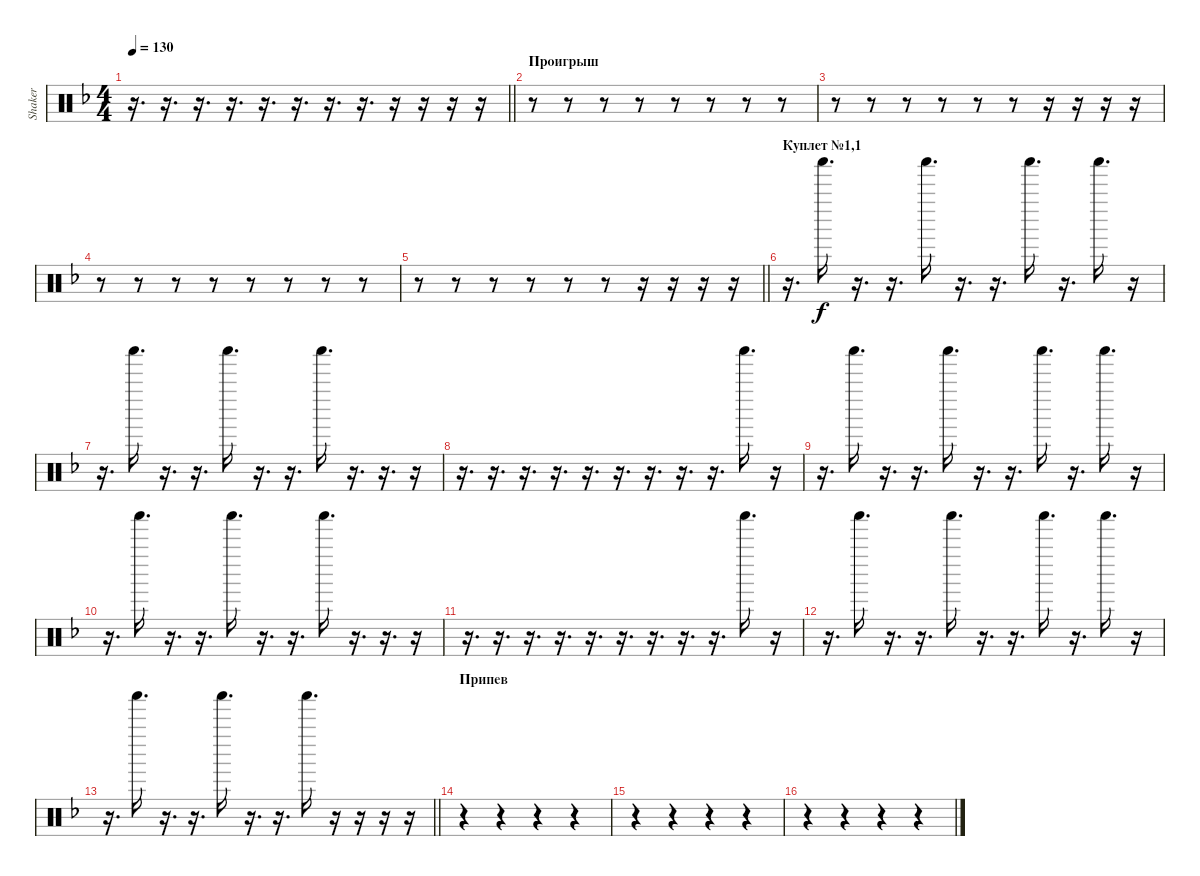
\track ("Shaker" "Shaker") {instrument percussion}
\staff {score}
\articulation defaults
\ts (4 4)
\tempo 130
\clef neutral
\barLineRight lightlight
\ks f
r.16{d dy f} r.16{d} r.16{d} r.16{d} r.16{d} r.16{d} r.16{d} r.16{d} r.16 r.16 r.16 r.16 |
\section ("" "Проигрыш")
r.8 r.8 r.8 r.8 r.8 r.8 r.8 r.8 |
r.8 r.8 r.8 r.8 r.8 r.8 r.16 r.16 r.16 r.16 |
r.8 r.8 r.8 r.8 r.8 r.8 r.8 r.8 |
\barLineRight lightlight
r.8 r.8 r.8 r.8 r.8 r.8 r.16 r.16 r.16 r.16 |
\section ("" "Куплет №1,1")
r.16{d} "Shaker (hit)".16{d} r.16{d} r.16{d} "Shaker (hit)".16{d} r.16{d} r.16{d} "Shaker (hit)".16{d} r.16{d} "Shaker (hit)".16{d} r.16 |
r.16{d} "Shaker (hit)".16{d} r.16{d} r.16{d} "Shaker (hit)".16{d} r.16{d} r.16{d} "Shaker (hit)".16{d} r.16{d} r.16{d} r.16 |
r.16{d} r.16{d} r.16{d} r.16{d} r.16{d} r.16{d} r.16{d} r.16{d} r.16{d} "Shaker (hit)".16{d} r.16 |
r.16{d} "Shaker (hit)".16{d} r.16{d} r.16{d} "Shaker (hit)".16{d} r.16{d} r.16{d} "Shaker (hit)".16{d} r.16{d} "Shaker (hit)".16{d} r.16 |
r.16{d} "Shaker (hit)".16{d} r.16{d} r.16{d} "Shaker (hit)".16{d} r.16{d} r.16{d} "Shaker (hit)".16{d} r.16{d} r.16{d} r.16 |
r.16{d} r.16{d} r.16{d} r.16{d} r.16{d} r.16{d} r.16{d} r.16{d} r.16{d} "Shaker (hit)".16{d} r.16 |
r.16{d} "Shaker (hit)".16{d} r.16{d} r.16{d} "Shaker (hit)".16{d} r.16{d} r.16{d} "Shaker (hit)".16{d} r.16{d} "Shaker (hit)".16{d} r.16 |
\barLineRight lightlight
r.16{d} "Shaker (hit)".16{d} r.16{d} r.16{d} "Shaker (hit)".16{d} r.16{d} r.16{d} "Shaker (hit)".16{d} r.16 r.16 r.16 r.16 |
\section ("" "Припев")
r.4 r.4 r.4 r.4 |
r.4 r.4 r.4 r.4 |
r.4 r.4 r.4 r.4
